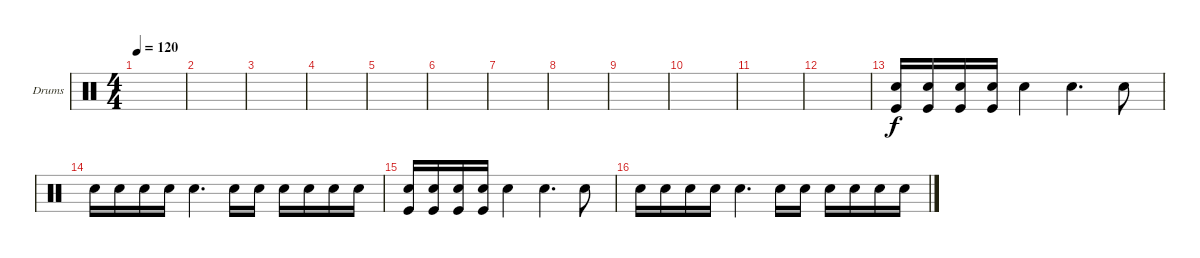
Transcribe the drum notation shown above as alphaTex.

\defaultSystemsLayout 4
\bracketExtendMode groupsimilarinstruments
\firstSystemTrackNameOrientation horizontal
\otherSystemsTrackNameOrientation horizontal
\track ("Drumkit" "Drums") {instrument percussion}
\staff {score}
\articulation defaults
\ts (4 4)
\tempo 120
\clef neutral
\scale
0.472222
\ks c
|
\scale
0.263889 |
\scale
0.263889 |
\scale
0.333333 |
\scale
0.333333 |
\scale
0.333333 |
\scale
0.333333 |
\scale
0.333333 |
\scale
0.333333 |
\scale
0.333333 |
\scale
0.333333 |
\scale
0.333333 |
\scale
0.333333 ("Snare (hit) 2" "Kick (hit)").16 ("Snare (hit) 2" "Kick (hit)").16 ("Snare (hit) 2" "Kick (hit)").16 ("Snare (hit) 2" "Kick (hit)").16 "Snare (hit) 2".4 "Snare (hit) 2".4{d} "Snare (hit) 2".8 |
\scale
0.333333 "Snare (hit) 2".16 "Snare (hit) 2".16 "Snare (hit) 2".16 "Snare (hit) 2".16 "Snare (hit) 2".4{d} "Snare (hit) 2".16 "Snare (hit) 2".16 "Snare (hit) 2".16 "Snare (hit) 2".16 "Snare (hit) 2".16 "Snare (hit) 2".16 |
\scale
0.333333 ("Snare (hit) 2" "Kick (hit)").16 ("Snare (hit) 2" "Kick (hit)").16 ("Snare (hit) 2" "Kick (hit)").16 ("Snare (hit) 2" "Kick (hit)").16 "Snare (hit) 2".4 "Snare (hit) 2".4{d} "Snare (hit) 2".8 |
"Snare (hit) 2".16 "Snare (hit) 2".16 "Snare (hit) 2".16 "Snare (hit) 2".16 "Snare (hit) 2".4{d} "Snare (hit) 2".16 "Snare (hit) 2".16 "Snare (hit) 2".16 "Snare (hit) 2".16 "Snare (hit) 2".16 "Snare (hit) 2".16
